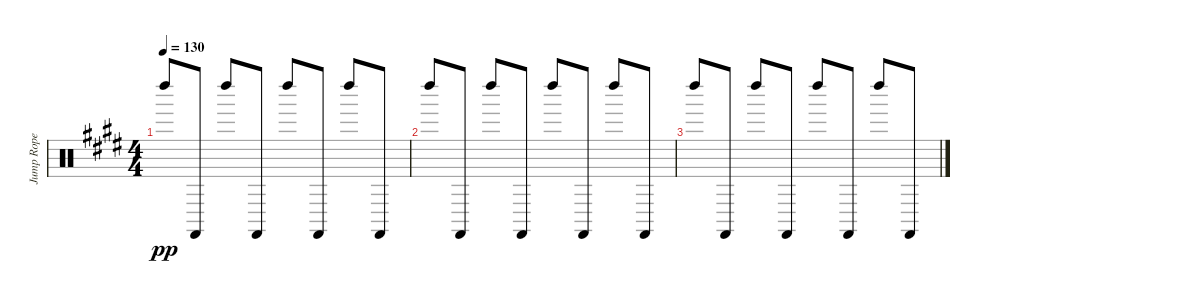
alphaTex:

\track ("Jump Rope" "Jump Rope") {instrument percussion}
\staff {score}
\articulation defaults
\ts (4 4)
\tempo 130
\clef neutral
\ks e "Left Maraca (hit)".8{dy pp} "Castanets (hit)".8 "Left Maraca (hit)".8 "Castanets (hit)".8 "Left Maraca (hit)".8 "Castanets (hit)".8 "Left Maraca (hit)".8 "Castanets (hit)".8
|
"Left Maraca (hit)".8 "Castanets (hit)".8 "Left Maraca (hit)".8 "Castanets (hit)".8 "Left Maraca (hit)".8 "Castanets (hit)".8 "Left Maraca (hit)".8 "Castanets (hit)".8 |
"Left Maraca (hit)".8 "Castanets (hit)".8 "Left Maraca (hit)".8 "Castanets (hit)".8 "Left Maraca (hit)".8 "Castanets (hit)".8 "Left Maraca (hit)".8 "Castanets (hit)".8
